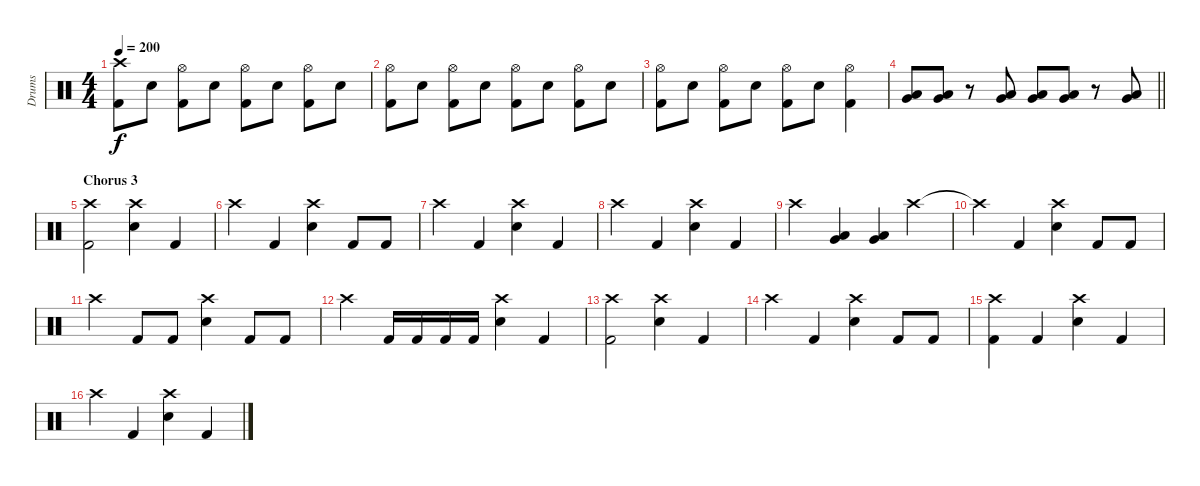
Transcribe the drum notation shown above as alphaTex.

\track ("Drums" "Drums") {instrument percussion}
\staff {score}
\articulation defaults
\ts (4 4)
\tempo 200
\clef neutral
\ks c
("Crash high (hit)" "Kick (hit) 2").8{dy f} "Electric Snare (hit)".8 ("Hi-Hat (open)" "Kick (hit) 2").8 "Electric Snare (hit)".8 ("Hi-Hat (open)" "Kick (hit) 2").8 "Electric Snare (hit)".8 ("Hi-Hat (open)" "Kick (hit) 2").8 "Electric Snare (hit)".8 |
("Hi-Hat (open)" "Kick (hit) 2").8 "Electric Snare (hit)".8 ("Hi-Hat (open)" "Kick (hit) 2").8 "Electric Snare (hit)".8 ("Hi-Hat (open)" "Kick (hit) 2").8 "Electric Snare (hit)".8 ("Hi-Hat (open)" "Kick (hit) 2").8 "Electric Snare (hit)".8 |
("Hi-Hat (open)" "Kick (hit) 2").8 "Electric Snare (hit)".8 ("Hi-Hat (open)" "Kick (hit) 2").8 "Electric Snare (hit)".8 ("Hi-Hat (open)" "Kick (hit) 2").8 "Electric Snare (hit)".8 ("Hi-Hat (open)" "Kick (hit) 2").4 |
\barLineRight lightlight
("Low Tom (hit)" "Very Low Tom (hit)").8 ("Low Tom (hit)" "Very Low Tom (hit)").8 r.8 ("Low Tom (hit)" "Very Low Tom (hit)").8 ("Low Tom (hit)" "Very Low Tom (hit)").8 ("Low Tom (hit)" "Very Low Tom (hit)").8 r.8 ("Low Tom (hit)" "Very Low Tom (hit)").8 |
\section ("" "Chorus 3")
("Crash high (hit)" "Kick (hit) 2").2 ("Crash high (hit)" "Electric Snare (hit)").4 "Kick (hit) 2".4 |
"Crash high (hit)".4 "Kick (hit) 2".4 ("Crash high (hit)" "Electric Snare (hit)").4 "Kick (hit) 2".8 "Kick (hit) 2".8 |
"Crash high (hit)".4 "Kick (hit) 2".4 ("Crash high (hit)" "Electric Snare (hit)").4 "Kick (hit) 2".4 |
"Crash high (hit)".4 "Kick (hit) 2".4 ("Crash high (hit)" "Electric Snare (hit)").4 "Kick (hit) 2".4 |
"Crash high (hit)".4 ("Very Low Tom (hit)" "Low Floor Tom (hit)").4 ("Very Low Tom (hit)" "Low Floor Tom (hit)").4 "Crash high (hit)".4 |
"Crash high (hit)"{t}.4 "Kick (hit) 2".4 ("Crash high (hit)" "Electric Snare (hit)").4 "Kick (hit) 2".8 "Kick (hit) 2".8 |
"Crash high (hit)".4 "Kick (hit) 2".8 "Kick (hit) 2".8 ("Crash high (hit)" "Electric Snare (hit)").4 "Kick (hit) 2".8 "Kick (hit) 2".8 |
"Crash high (hit)".4 "Kick (hit) 2".16 "Kick (hit) 2".16 "Kick (hit) 2".16 "Kick (hit) 2".16 ("Crash high (hit)" "Electric Snare (hit)").4 "Kick (hit) 2".4 |
("Crash high (hit)" "Kick (hit) 2").2 ("Crash high (hit)" "Electric Snare (hit)").4 "Kick (hit) 2".4 |
"Crash high (hit)".4 "Kick (hit) 2".4 ("Crash high (hit)" "Electric Snare (hit)").4 "Kick (hit) 2".8 "Kick (hit) 2".8 |
("Crash high (hit)" "Kick (hit) 2").4 "Kick (hit) 2".4 ("Crash high (hit)" "Electric Snare (hit)").4 "Kick (hit) 2".4 |
"Crash high (hit)".4 "Kick (hit) 2".4 ("Crash high (hit)" "Electric Snare (hit)").4 "Kick (hit) 2".4
